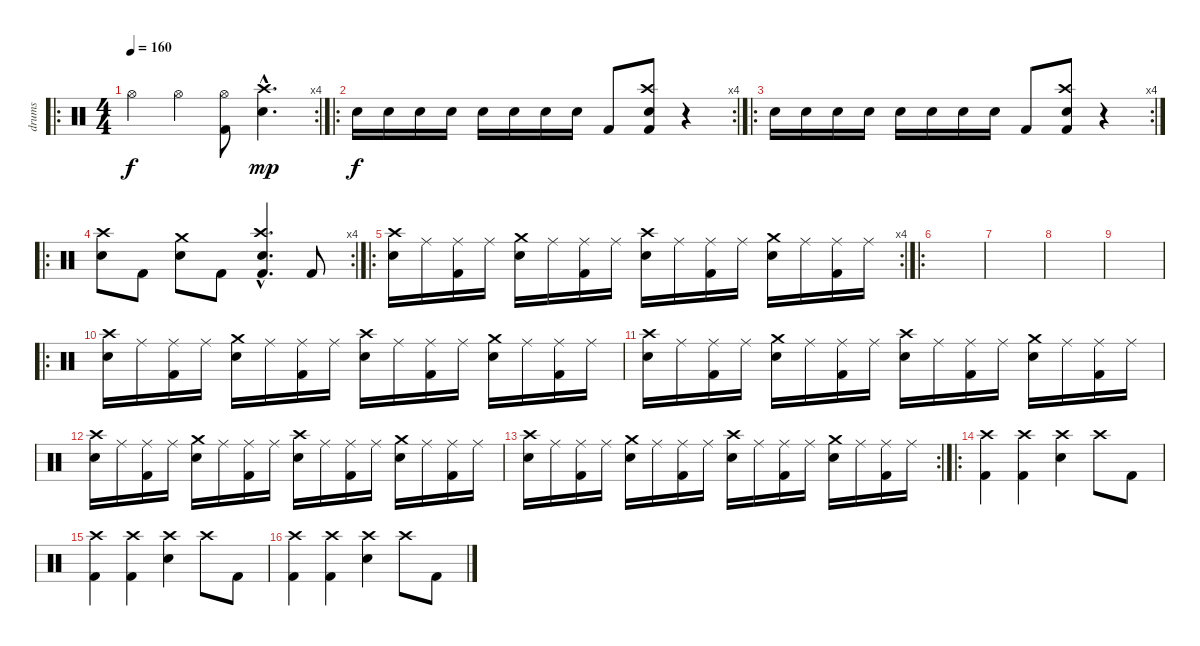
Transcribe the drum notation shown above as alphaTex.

\track ("drums" "drums") {instrument percussion}
\staff {score}
\articulation defaults
\ro
\rc 4
\ts (4 4)
\tempo 160
\clef neutral
\ks c "Hi-Hat (open)".4{dy f} "Hi-Hat (open)".4
("Hi-Hat (open)" "Kick (hit) 2").8 ("Crash high (hit)"{hac} "Snare (hit) 2"{hac}).4{d dy mp} |
\ro
\rc 4 "Snare (hit) 2".16{dy f} "Snare (hit) 2".16 "Snare (hit) 2".16 "Snare (hit) 2".16 "Snare (hit) 2".16 "Snare (hit) 2".16 "Snare (hit) 2".16 "Snare (hit) 2".16 "Kick (hit) 2".8
("Crash high (hit)" "Snare (hit) 2" "Kick (hit) 2").8 r.4 |
\ro
\rc 4 "Snare (hit) 2".16 "Snare (hit) 2".16 "Snare (hit) 2".16 "Snare (hit) 2".16 "Snare (hit) 2".16 "Snare (hit) 2".16 "Snare (hit) 2".16 "Snare (hit) 2".16 "Kick (hit) 2".8
("Crash high (hit)" "Snare (hit) 2" "Kick (hit) 2").8 r.4 |
\ro
\rc 4
("Crash high (hit)" "Snare (hit) 2").8 "Kick (hit) 2".8 ("Crash medium (hit)" "Snare (hit) 2").8 "Kick (hit) 2".8 ("Crash high (hit)"{hac} "Snare (hit) 2"{hac} "Kick (hit) 2"{hac}).4{d} "Kick (hit) 2".8 |
\ro
\rc 4
("Crash high (hit)" "Snare (hit) 2").16 "Ride (middle)".16 ("Ride (middle)" "Kick (hit) 2").16 "Ride (middle)".16 ("Crash medium (hit)" "Snare (hit) 2").16 "Ride (middle)".16 ("Ride (middle)" "Kick (hit) 2").16 "Ride (middle)".16 ("Crash high (hit)" "Snare (hit) 2").16 "Ride (middle)".16 ("Ride (middle)" "Kick (hit) 2").16 "Ride (middle)".16 ("Crash medium (hit)" "Snare (hit) 2").16 "Ride (middle)".16 ("Ride (middle)" "Kick (hit) 2").16 "Ride (middle)".16 |
\ro
|
|
|
|
\ro
("Crash high (hit)" "Snare (hit) 2").16 "Ride (middle)".16 ("Ride (middle)" "Kick (hit) 2").16 "Ride (middle)".16 ("Crash medium (hit)" "Snare (hit) 2").16 "Ride (middle)".16 ("Ride (middle)" "Kick (hit) 2").16 "Ride (middle)".16 ("Crash high (hit)" "Snare (hit) 2").16 "Ride (middle)".16 ("Ride (middle)" "Kick (hit) 2").16 "Ride (middle)".16 ("Crash medium (hit)" "Snare (hit) 2").16 "Ride (middle)".16 ("Ride (middle)" "Kick (hit) 2").16 "Ride (middle)".16 |
("Crash high (hit)" "Snare (hit) 2").16 "Ride (middle)".16 ("Ride (middle)" "Kick (hit) 2").16 "Ride (middle)".16 ("Crash medium (hit)" "Snare (hit) 2").16 "Ride (middle)".16 ("Ride (middle)" "Kick (hit) 2").16 "Ride (middle)".16 ("Crash high (hit)" "Snare (hit) 2").16 "Ride (middle)".16 ("Ride (middle)" "Kick (hit) 2").16 "Ride (middle)".16 ("Crash medium (hit)" "Snare (hit) 2").16 "Ride (middle)".16 ("Ride (middle)" "Kick (hit) 2").16 "Ride (middle)".16 |
("Crash high (hit)" "Snare (hit) 2").16 "Ride (middle)".16 ("Ride (middle)" "Kick (hit) 2").16 "Ride (middle)".16 ("Crash medium (hit)" "Snare (hit) 2").16 "Ride (middle)".16 ("Ride (middle)" "Kick (hit) 2").16 "Ride (middle)".16 ("Crash high (hit)" "Snare (hit) 2").16 "Ride (middle)".16 ("Ride (middle)" "Kick (hit) 2").16 "Ride (middle)".16 ("Crash medium (hit)" "Snare (hit) 2").16 "Ride (middle)".16 ("Ride (middle)" "Kick (hit) 2").16 "Ride (middle)".16 |
\rc 2
("Crash high (hit)" "Snare (hit) 2").16 "Ride (middle)".16 ("Ride (middle)" "Kick (hit) 2").16 "Ride (middle)".16 ("Crash medium (hit)" "Snare (hit) 2").16 "Ride (middle)".16 ("Ride (middle)" "Kick (hit) 2").16 "Ride (middle)".16 ("Crash high (hit)" "Snare (hit) 2").16 "Ride (middle)".16 ("Ride (middle)" "Kick (hit) 2").16 "Ride (middle)".16 ("Crash medium (hit)" "Snare (hit) 2").16 "Ride (middle)".16 ("Ride (middle)" "Kick (hit) 2").16 "Ride (middle)".16 |
\ro
("Crash high (hit)" "Kick (hit) 2").4 ("Crash high (hit)" "Kick (hit) 2").4 ("Crash high (hit)" "Snare (hit) 2").4 "Crash high (hit)".8 "Kick (hit) 2".8 |
("Crash high (hit)" "Kick (hit) 2").4 ("Crash high (hit)" "Kick (hit) 2").4 ("Crash high (hit)" "Snare (hit) 2").4 "Crash high (hit)".8 "Kick (hit) 2".8 |
("Crash high (hit)" "Kick (hit) 2").4 ("Crash high (hit)" "Kick (hit) 2").4 ("Crash high (hit)" "Snare (hit) 2").4 "Crash high (hit)".8 "Kick (hit) 2".8
